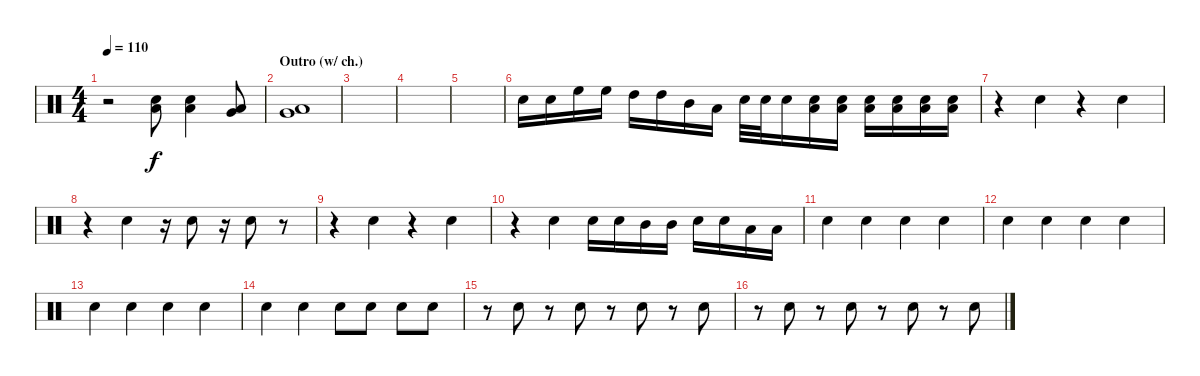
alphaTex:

\track "" {instrument percussion}
\staff {score}
\articulation defaults
\ts (4 4)
\tempo 110
\clef neutral
\ks c
r.2{dy f} ("Low Tom (hit)" "Electric Snare (hit)").8 ("Low Tom (hit)" "Electric Snare (hit)").4 ("Low Floor Tom (hit)" "Very Low Tom (hit)").8 |
\section ("" "Outro (w/ ch.)")
("Low Floor Tom (hit)" "Very Low Tom (hit)").1 |
|
|
|
"Electric Snare (hit)".16{volume 15} "Electric Snare (hit)".16 "High Floor Tom (hit)".16 "High Floor Tom (hit)".16 "High Tom (hit)".16 "High Tom (hit)".16 "Mid Tom (hit)".16 "Low Tom (hit)".16 "Electric Snare (hit)".32 "Electric Snare (hit)".32 "Electric Snare (hit)".16 ("Low Tom (hit)" "Electric Snare (hit)").16 ("Low Tom (hit)" "Electric Snare (hit)").16 ("Low Tom (hit)" "Electric Snare (hit)").16 ("Low Tom (hit)" "Electric Snare (hit)").16 ("Low Tom (hit)" "Electric Snare (hit)").16 ("Low Tom (hit)" "Electric Snare (hit)").16 |
r.4 "Electric Snare (hit)".4 r.4 "Electric Snare (hit)".4 |
r.4 "Electric Snare (hit)".4 r.16 "Electric Snare (hit)".8 r.16 "Electric Snare (hit)".8 r.8 |
r.4 "Electric Snare (hit)".4 r.4 "Electric Snare (hit)".4 |
r.4 "Electric Snare (hit)".4 "Electric Snare (hit)".16 "Electric Snare (hit)".16 "Mid Tom (hit)".16 "Mid Tom (hit)".16 "Electric Snare (hit)".16 "Electric Snare (hit)".16 "Low Tom (hit)".16 "Low Tom (hit)".16 |
"Electric Snare (hit)".4 "Electric Snare (hit)".4 "Electric Snare (hit)".4 "Electric Snare (hit)".4 |
"Electric Snare (hit)".4 "Electric Snare (hit)".4 "Electric Snare (hit)".4 "Electric Snare (hit)".4 |
"Electric Snare (hit)".4 "Electric Snare (hit)".4 "Electric Snare (hit)".4 "Electric Snare (hit)".4 |
"Electric Snare (hit)".4 "Electric Snare (hit)".4 "Electric Snare (hit)".8 "Electric Snare (hit)".8 "Electric Snare (hit)".8 "Electric Snare (hit)".8 |
r.8 "Electric Snare (hit)".8 r.8 "Electric Snare (hit)".8 r.8 "Electric Snare (hit)".8 r.8 "Electric Snare (hit)".8 |
r.8 "Electric Snare (hit)".8 r.8 "Electric Snare (hit)".8 r.8 "Electric Snare (hit)".8 r.8 "Electric Snare (hit)".8
